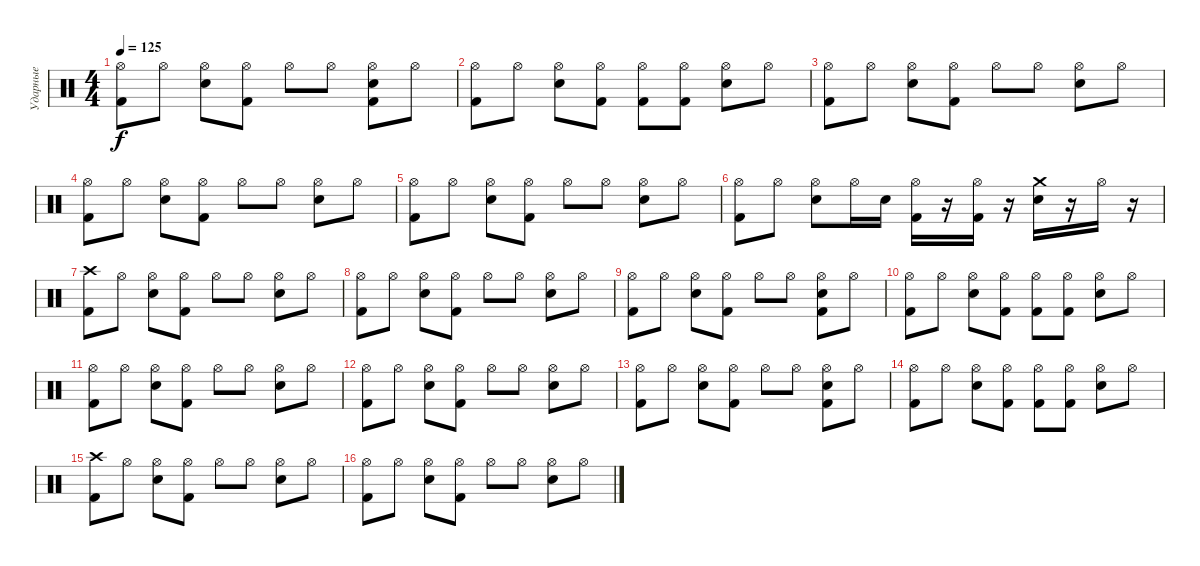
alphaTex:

\track ("Ударные" "Ударные") {instrument percussion}
\staff {score}
\articulation defaults
\ts (4 4)
\tempo 125
\clef neutral
\ks c
("Hi-Hat (open)" "Kick (hit) 2").8{dy f} "Hi-Hat (open)".8 ("Hi-Hat (open)" "Snare (hit) 2").8 ("Hi-Hat (open)" "Kick (hit) 2").8 "Hi-Hat (open)".8 "Hi-Hat (open)".8 ("Hi-Hat (open)" "Snare (hit) 2" "Kick (hit) 2").8 "Hi-Hat (open)".8 |
("Hi-Hat (open)" "Kick (hit) 2").8 "Hi-Hat (open)".8 ("Hi-Hat (open)" "Snare (hit) 2").8 ("Hi-Hat (open)" "Kick (hit) 2").8 ("Hi-Hat (open)" "Kick (hit) 2").8 ("Hi-Hat (open)" "Kick (hit) 2").8 ("Hi-Hat (open)" "Snare (hit) 2").8 "Hi-Hat (open)".8 |
("Hi-Hat (open)" "Kick (hit) 2").8 "Hi-Hat (open)".8 ("Hi-Hat (open)" "Snare (hit) 2").8 ("Hi-Hat (open)" "Kick (hit) 2").8 "Hi-Hat (open)".8 "Hi-Hat (open)".8 ("Hi-Hat (open)" "Snare (hit) 2").8 "Hi-Hat (open)".8 |
("Hi-Hat (open)" "Kick (hit) 2").8 "Hi-Hat (open)".8 ("Hi-Hat (open)" "Snare (hit) 2").8 ("Hi-Hat (open)" "Kick (hit) 2").8 "Hi-Hat (open)".8 "Hi-Hat (open)".8 ("Hi-Hat (open)" "Snare (hit) 2").8 "Hi-Hat (open)".8 |
("Hi-Hat (open)" "Kick (hit) 2").8 "Hi-Hat (open)".8 ("Hi-Hat (open)" "Snare (hit) 2").8 ("Hi-Hat (open)" "Kick (hit) 2").8 "Hi-Hat (open)".8 "Hi-Hat (open)".8 ("Hi-Hat (open)" "Snare (hit) 2").8 "Hi-Hat (open)".8 |
("Hi-Hat (open)" "Kick (hit) 2").8 "Hi-Hat (open)".8 ("Hi-Hat (open)" "Snare (hit) 2").8 "Hi-Hat (open)".16 "Snare (hit) 2".16 ("Hi-Hat (open)" "Kick (hit) 2").16 r.16 ("Hi-Hat (open)" "Kick (hit) 2").16 r.16 ("Crash medium (hit)" "Snare (hit) 2").16 r.16 "Hi-Hat (open)".16 r.16 |
("Crash high (hit)" "Kick (hit) 2").8 "Hi-Hat (open)".8 ("Hi-Hat (open)" "Snare (hit) 2").8 ("Hi-Hat (open)" "Kick (hit) 2").8 "Hi-Hat (open)".8 "Hi-Hat (open)".8 ("Hi-Hat (open)" "Snare (hit) 2").8 "Hi-Hat (open)".8 |
("Hi-Hat (open)" "Kick (hit) 2").8 "Hi-Hat (open)".8 ("Hi-Hat (open)" "Snare (hit) 2").8 ("Hi-Hat (open)" "Kick (hit) 2").8 "Hi-Hat (open)".8 "Hi-Hat (open)".8 ("Hi-Hat (open)" "Snare (hit) 2").8 "Hi-Hat (open)".8 |
("Hi-Hat (open)" "Kick (hit) 2").8 "Hi-Hat (open)".8 ("Hi-Hat (open)" "Snare (hit) 2").8 ("Hi-Hat (open)" "Kick (hit) 2").8 "Hi-Hat (open)".8 "Hi-Hat (open)".8 ("Hi-Hat (open)" "Snare (hit) 2" "Kick (hit) 2").8 "Hi-Hat (open)".8 |
("Hi-Hat (open)" "Kick (hit) 2").8 "Hi-Hat (open)".8 ("Hi-Hat (open)" "Snare (hit) 2").8 ("Hi-Hat (open)" "Kick (hit) 2").8 ("Hi-Hat (open)" "Kick (hit) 2").8 ("Hi-Hat (open)" "Kick (hit) 2").8 ("Hi-Hat (open)" "Snare (hit) 2").8 "Hi-Hat (open)".8 |
("Hi-Hat (open)" "Kick (hit) 2").8 "Hi-Hat (open)".8 ("Hi-Hat (open)" "Snare (hit) 2").8 ("Hi-Hat (open)" "Kick (hit) 2").8 "Hi-Hat (open)".8 "Hi-Hat (open)".8 ("Hi-Hat (open)" "Snare (hit) 2").8 "Hi-Hat (open)".8 |
("Hi-Hat (open)" "Kick (hit) 2").8 "Hi-Hat (open)".8 ("Hi-Hat (open)" "Snare (hit) 2").8 ("Hi-Hat (open)" "Kick (hit) 2").8 "Hi-Hat (open)".8 "Hi-Hat (open)".8 ("Hi-Hat (open)" "Snare (hit) 2").8 "Hi-Hat (open)".8 |
("Hi-Hat (open)" "Kick (hit) 2").8 "Hi-Hat (open)".8 ("Hi-Hat (open)" "Snare (hit) 2").8 ("Hi-Hat (open)" "Kick (hit) 2").8 "Hi-Hat (open)".8 "Hi-Hat (open)".8 ("Hi-Hat (open)" "Snare (hit) 2" "Kick (hit) 2").8 "Hi-Hat (open)".8 |
("Hi-Hat (open)" "Kick (hit) 2").8 "Hi-Hat (open)".8 ("Hi-Hat (open)" "Snare (hit) 2").8 ("Hi-Hat (open)" "Kick (hit) 2").8 ("Hi-Hat (open)" "Kick (hit) 2").8 ("Hi-Hat (open)" "Kick (hit) 2").8 ("Hi-Hat (open)" "Snare (hit) 2").8 "Hi-Hat (open)".8 |
("Crash high (hit)" "Kick (hit) 2").8 "Hi-Hat (open)".8 ("Hi-Hat (open)" "Snare (hit) 2").8 ("Hi-Hat (open)" "Kick (hit) 2").8 "Hi-Hat (open)".8 "Hi-Hat (open)".8 ("Hi-Hat (open)" "Snare (hit) 2").8 "Hi-Hat (open)".8 |
("Hi-Hat (open)" "Kick (hit) 2").8 "Hi-Hat (open)".8 ("Hi-Hat (open)" "Snare (hit) 2").8 ("Hi-Hat (open)" "Kick (hit) 2").8 "Hi-Hat (open)".8 "Hi-Hat (open)".8 ("Hi-Hat (open)" "Snare (hit) 2").8 "Hi-Hat (open)".8
